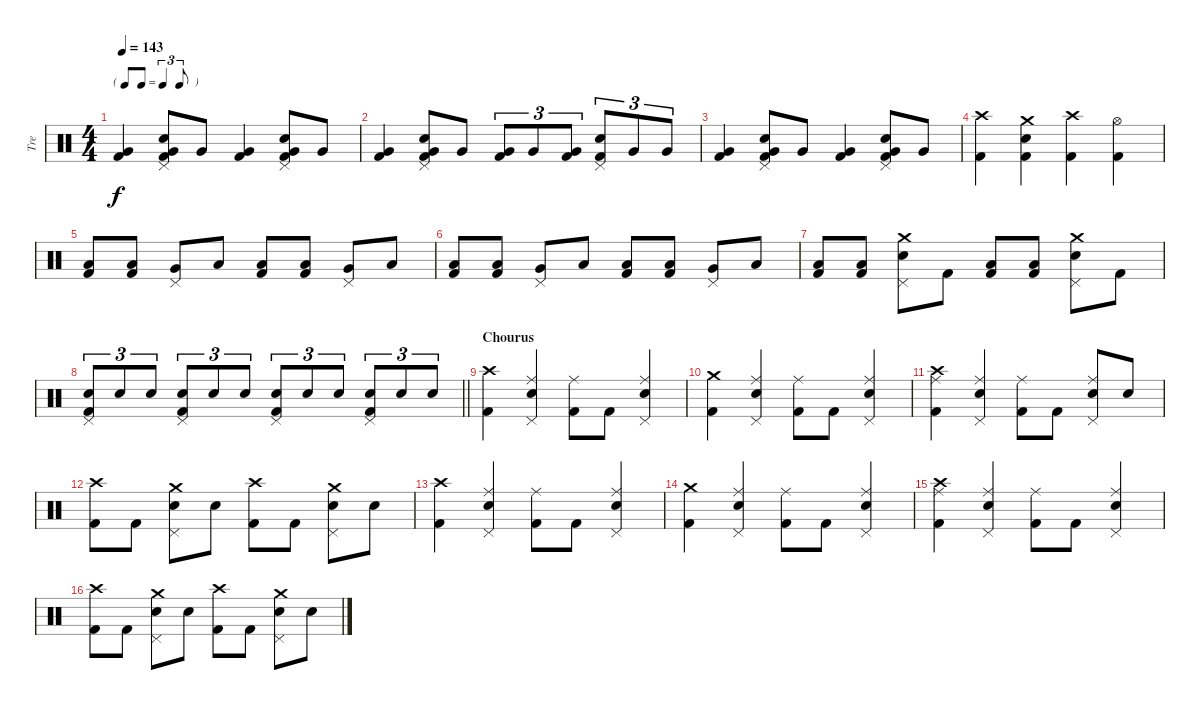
\track ("Tre" "Tre") {instrument percussion}
\staff {score}
\articulation defaults
\ts (4 4)
\tf triplet8th
\tempo 143
\clef neutral
\ks c
("Very Low Tom (hit)" "Kick (hit) 2").4{dy f} ("Pedal Hi-Hat (hit)" "Snare (hit) 2" "Very Low Tom (hit)" "Kick (hit) 2").8 "Very Low Tom (hit)".8 ("Very Low Tom (hit)" "Kick (hit) 2").4 ("Pedal Hi-Hat (hit)" "Snare (hit) 2" "Very Low Tom (hit)" "Kick (hit) 2").8 "Very Low Tom (hit)".8 |
("Very Low Tom (hit)" "Kick (hit) 2").4 ("Pedal Hi-Hat (hit)" "Snare (hit) 2" "Very Low Tom (hit)" "Kick (hit) 2").8 "Very Low Tom (hit)".8 ("Very Low Tom (hit)" "Kick (hit) 2").8{tu (3 2)} "Very Low Tom (hit)".8{tu (3 2)} ("Very Low Tom (hit)" "Kick (hit) 2").8{tu (3 2)} ("Pedal Hi-Hat (hit)" "Snare (hit) 2" "Kick (hit) 2").8{tu (3 2)} "Very Low Tom (hit)".8{tu (3 2)} "Very Low Tom (hit)".8{tu (3 2)} |
("Very Low Tom (hit)" "Kick (hit) 2").4 ("Pedal Hi-Hat (hit)" "Snare (hit) 2" "Very Low Tom (hit)" "Kick (hit) 2").8 "Very Low Tom (hit)".8 ("Very Low Tom (hit)" "Kick (hit) 2").4 ("Pedal Hi-Hat (hit)" "Snare (hit) 2" "Very Low Tom (hit)" "Kick (hit) 2").8 "Very Low Tom (hit)".8 |
("Crash high (hit)" "Kick (hit) 2").4 ("Crash medium (hit)" "Snare (hit) 2" "Kick (hit) 2").4 ("Crash high (hit)" "Kick (hit) 2").4 ("Hi-Hat (open)" "Kick (hit) 2").4 |
("Low Floor Tom (hit)" "Kick (hit) 2").8 ("Low Floor Tom (hit)" "Kick (hit) 2").8 ("Very Low Tom (hit)" "Pedal Hi-Hat (hit)").8 "Low Floor Tom (hit)".8 ("Low Floor Tom (hit)" "Kick (hit) 2").8 ("Low Floor Tom (hit)" "Kick (hit) 2").8 ("Very Low Tom (hit)" "Pedal Hi-Hat (hit)").8 "Low Floor Tom (hit)".8 |
("Low Floor Tom (hit)" "Kick (hit) 2").8 ("Low Floor Tom (hit)" "Kick (hit) 2").8 ("Very Low Tom (hit)" "Pedal Hi-Hat (hit)").8 "Low Floor Tom (hit)".8 ("Low Floor Tom (hit)" "Kick (hit) 2").8 ("Low Floor Tom (hit)" "Kick (hit) 2").8 ("Very Low Tom (hit)" "Pedal Hi-Hat (hit)").8 "Low Floor Tom (hit)".8 |
("Low Floor Tom (hit)" "Kick (hit) 2").8 ("Low Floor Tom (hit)" "Kick (hit) 2").8 ("Crash medium (hit)" "Snare (hit) 2" "Pedal Hi-Hat (hit)").8 "Kick (hit) 2".8 ("Low Floor Tom (hit)" "Kick (hit) 2").8 ("Low Floor Tom (hit)" "Kick (hit) 2").8 ("Crash medium (hit)" "Snare (hit) 2" "Pedal Hi-Hat (hit)").8 "Kick (hit) 2".8 |
\barLineRight lightlight
("Snare (hit) 2" "Pedal Hi-Hat (hit)" "Kick (hit) 2").8{tu (3 2)} "Snare (hit) 2".8{tu (3 2)} "Snare (hit) 2".8{tu (3 2)} ("Snare (hit) 2" "Pedal Hi-Hat (hit)" "Kick (hit) 2").8{tu (3 2)} "Snare (hit) 2".8{tu (3 2)} "Snare (hit) 2".8{tu (3 2)} ("Snare (hit) 2" "Pedal Hi-Hat (hit)" "Kick (hit) 2").8{tu (3 2)} "Snare (hit) 2".8{tu (3 2)} "Snare (hit) 2".8{tu (3 2)} ("Snare (hit) 2" "Pedal Hi-Hat (hit)" "Kick (hit) 2").8{tu (3 2)} "Snare (hit) 2".8{tu (3 2)} "Snare (hit) 2".8{tu (3 2)} |
\section ("" "Chourus")
("Crash high (hit)" "Kick (hit) 2").4 ("Ride (middle)" "Snare (hit) 2" "Pedal Hi-Hat (hit)").4 ("Ride (middle)" "Kick (hit) 2").8 "Kick (hit) 2".8 ("Ride (middle)" "Snare (hit) 2" "Pedal Hi-Hat (hit)").4 |
("Crash medium (hit)" "Kick (hit) 2").4 ("Ride (middle)" "Snare (hit) 2" "Pedal Hi-Hat (hit)").4 ("Ride (middle)" "Kick (hit) 2").8 "Kick (hit) 2".8 ("Ride (middle)" "Snare (hit) 2" "Pedal Hi-Hat (hit)").4 |
("Crash high (hit)" "Ride (middle)" "Kick (hit) 2").4 ("Ride (middle)" "Snare (hit) 2" "Pedal Hi-Hat (hit)").4 ("Ride (middle)" "Kick (hit) 2").8 "Kick (hit) 2".8 ("Ride (middle)" "Snare (hit) 2" "Pedal Hi-Hat (hit)").8 "Snare (hit) 2".8 |
("Crash high (hit)" "Kick (hit) 2").8 "Kick (hit) 2".8 ("Crash medium (hit)" "Snare (hit) 2" "Pedal Hi-Hat (hit)").8 "Snare (hit) 2".8 ("Crash high (hit)" "Kick (hit) 2").8 "Kick (hit) 2".8 ("Crash medium (hit)" "Snare (hit) 2" "Pedal Hi-Hat (hit)").8 "Snare (hit) 2".8 |
("Crash high (hit)" "Kick (hit) 2").4 ("Ride (middle)" "Snare (hit) 2" "Pedal Hi-Hat (hit)").4 ("Ride (middle)" "Kick (hit) 2").8 "Kick (hit) 2".8 ("Ride (middle)" "Snare (hit) 2" "Pedal Hi-Hat (hit)").4 |
("Crash medium (hit)" "Kick (hit) 2").4 ("Ride (middle)" "Snare (hit) 2" "Pedal Hi-Hat (hit)").4 ("Ride (middle)" "Kick (hit) 2").8 "Kick (hit) 2".8 ("Ride (middle)" "Snare (hit) 2" "Pedal Hi-Hat (hit)").4 |
("Crash high (hit)" "Ride (middle)" "Kick (hit) 2").4 ("Ride (middle)" "Snare (hit) 2" "Pedal Hi-Hat (hit)").4 ("Ride (middle)" "Kick (hit) 2").8 "Kick (hit) 2".8 ("Ride (middle)" "Snare (hit) 2" "Pedal Hi-Hat (hit)").4 |
("Crash high (hit)" "Kick (hit) 2").8 "Kick (hit) 2".8 ("Crash medium (hit)" "Snare (hit) 2" "Pedal Hi-Hat (hit)").8 "Snare (hit) 2".8 ("Crash high (hit)" "Kick (hit) 2").8 "Kick (hit) 2".8 ("Crash medium (hit)" "Snare (hit) 2" "Pedal Hi-Hat (hit)").8 "Snare (hit) 2".8
